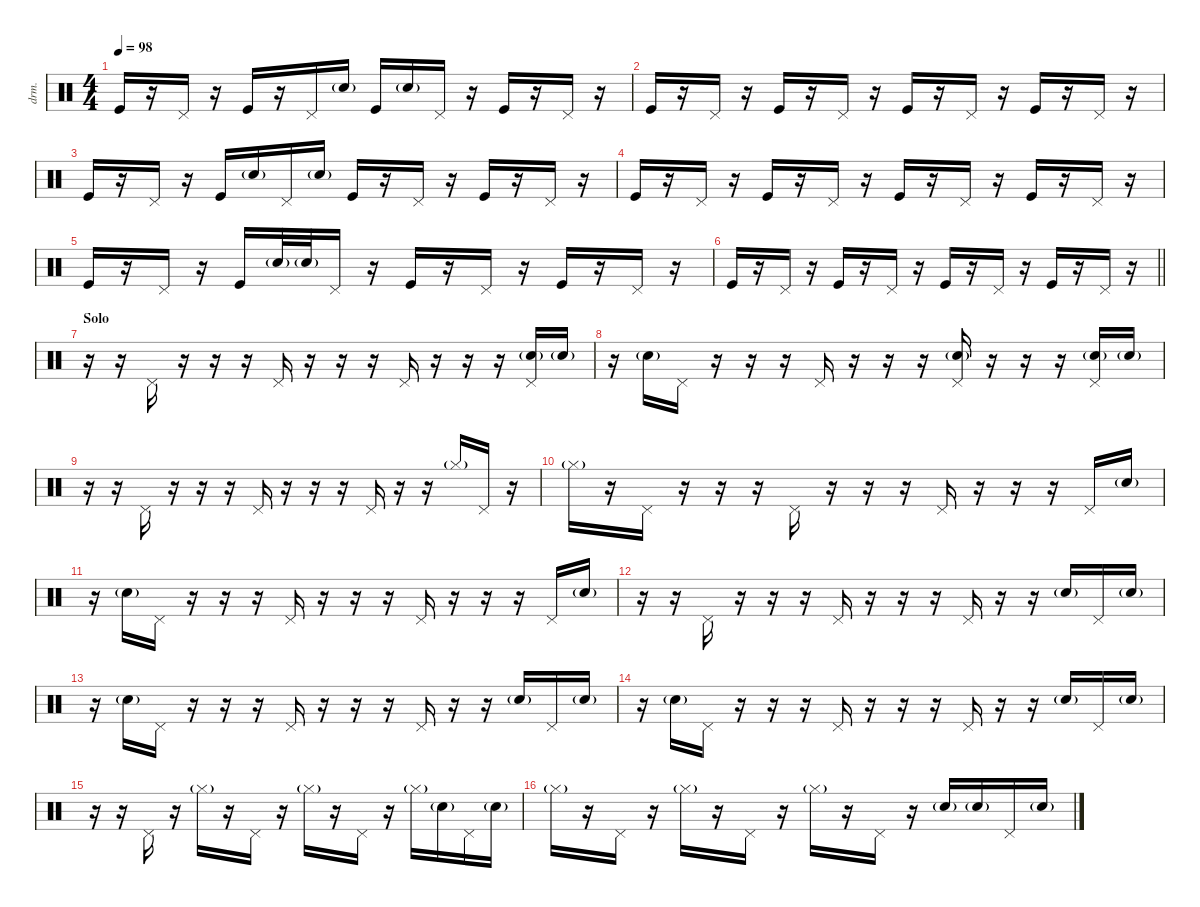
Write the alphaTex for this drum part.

\defaultSystemsLayout 4
\hideDynamics
\bracketExtendMode nobrackets
\otherSystemsTrackNameOrientation horizontal
\track ("Duris Maxwell" "drm.") {instrument percussion}
\staff {score}
\articulation defaults
\ts (4 4)
\tempo 98
\clef neutral
\ks c "Kick (hit)".16{dy f beam Up}
r.16{beam Up} "Pedal Hi-Hat (hit)".16{beam Up} r.16{beam Up} "Kick (hit)".16{beam Up} r.16{beam Up} "Pedal Hi-Hat (hit)".16{beam Up} "Snare (hit) 2"{g}.16{beam Up} "Kick (hit)".16{beam Up} "Snare (hit) 2"{g}.16{beam Up} "Pedal Hi-Hat (hit)".16{beam Up} r.16{beam Up} "Kick (hit)".16{beam Up} r.16{beam Up} "Pedal Hi-Hat (hit)".16{beam Up} r.16{beam Up} |
"Kick (hit)".16{beam Up} r.16{beam Up} "Pedal Hi-Hat (hit)".16{beam Up} r.16{beam Up} "Kick (hit)".16{beam Up} r.16{beam Up} "Pedal Hi-Hat (hit)".16{beam Up} r.16{beam Up} "Kick (hit)".16{beam Up} r.16{beam Up} "Pedal Hi-Hat (hit)".16{beam Up} r.16{beam Up} "Kick (hit)".16{beam Up} r.16{beam Up} "Pedal Hi-Hat (hit)".16{beam Up} r.16{beam Up} |
"Kick (hit)".16{beam Up} r.16{beam Up} "Pedal Hi-Hat (hit)".16{beam Up} r.16{beam Up} "Kick (hit)".16{beam Up} "Snare (hit) 2"{g}.16{beam Up} "Pedal Hi-Hat (hit)".16{beam Up} "Snare (hit) 2"{g}.16{beam Up} "Kick (hit)".16{beam Up} r.16{beam Up} "Pedal Hi-Hat (hit)".16{beam Up} r.16{beam Up} "Kick (hit)".16{beam Up} r.16{beam Up} "Pedal Hi-Hat (hit)".16{beam Up} r.16{beam Up} |
"Kick (hit)".16{beam Up} r.16{beam Up} "Pedal Hi-Hat (hit)".16{beam Up} r.16{beam Up} "Kick (hit)".16{beam Up} r.16{beam Up} "Pedal Hi-Hat (hit)".16{beam Up} r.16{beam Up} "Kick (hit)".16{beam Up} r.16{beam Up} "Pedal Hi-Hat (hit)".16{beam Up} r.16{beam Up} "Kick (hit)".16{beam Up} r.16{beam Up} "Pedal Hi-Hat (hit)".16{beam Up} r.16{beam Up} |
"Kick (hit)".16{beam Up} r.16{beam Up} "Pedal Hi-Hat (hit)".16{beam Up} r.16{beam Up} "Kick (hit)".16{beam Up} "Snare (hit) 2"{g}.32{beam Up} "Snare (hit) 2"{g}.32{beam Up} "Pedal Hi-Hat (hit)".16{beam Up} r.16{beam Up} "Kick (hit)".16{beam Up} r.16{beam Up} "Pedal Hi-Hat (hit)".16{beam Up} r.16{beam Up} "Kick (hit)".16{beam Up} r.16{beam Up} "Pedal Hi-Hat (hit)".16{beam Up} r.16{beam Up} |
\barLineRight lightlight "Kick (hit)".16{beam Up}
r.16{beam Up} "Pedal Hi-Hat (hit)".16{beam Up} r.16{beam Up} "Kick (hit)".16{beam Up} r.16{beam Up} "Pedal Hi-Hat (hit)".16{beam Up} r.16{beam Up} "Kick (hit)".16{beam Up} r.16{beam Up} "Pedal Hi-Hat (hit)".16{beam Up} r.16{beam Up} "Kick (hit)".16{beam Up} r.16{beam Up} "Pedal Hi-Hat (hit)".16{beam Up} r.16{beam Up} |
\section ("" "Solo")
r.16{beam Down} r.16{beam Down} "Pedal Hi-Hat (hit)".16{beam Up} r.16{beam Up} r.16{beam Up} r.16{beam Up} "Pedal Hi-Hat (hit)".16{beam Up} r.16{beam Up} r.16{beam Up} r.16{beam Up} "Pedal Hi-Hat (hit)".16{beam Up} r.16{beam Up} r.16{beam Up} r.16{beam Up} ("Pedal Hi-Hat (hit)" "Snare (hit) 2"{g}).16{beam Up} "Snare (hit) 2"{g}.16{beam Up} |
r.16{beam Down} "Snare (hit) 2"{g}.16{beam Up} "Pedal Hi-Hat (hit)".16{beam Up} r.16{beam Up} r.16{beam Up} r.16{beam Up} "Pedal Hi-Hat (hit)".16{beam Up} r.16{beam Up} r.16{beam Up} r.16{beam Up} ("Pedal Hi-Hat (hit)" "Snare (hit) 2"{g}).16{beam Up} r.16{beam Up} r.16{beam Up} r.16{beam Up} ("Pedal Hi-Hat (hit)" "Snare (hit) 2"{g}).16{beam Up} "Snare (hit) 2"{g}.16{beam Up} |
r.16{beam Down} r.16{beam Down} "Pedal Hi-Hat (hit)".16{beam Up} r.16{beam Up} r.16{beam Up} r.16{beam Up} "Pedal Hi-Hat (hit)".16{beam Up} r.16{beam Up} r.16{beam Up} r.16{beam Up} "Pedal Hi-Hat (hit)".16{beam Up} r.16{beam Up} r.16{beam Up} "Hi-Hat (closed)"{g}.16{beam Down} "Pedal Hi-Hat (hit)".16{beam Down} r.16{beam Down} |
"Hi-Hat (closed)"{g}.16{beam Down} r.16{beam Down} "Pedal Hi-Hat (hit)".16{beam Down} r.16{beam Down} r.16{beam Down} r.16{beam Down} "Pedal Hi-Hat (hit)".16{beam Up} r.16{beam Up} r.16{beam Up} r.16{beam Up} "Pedal Hi-Hat (hit)".16{beam Up} r.16{beam Up} r.16{beam Up} r.16{beam Up} "Pedal Hi-Hat (hit)".16{beam Up} "Snare (hit) 2"{g}.16{beam Up} |
r.16{beam Down} "Snare (hit) 2"{g}.16{beam Up} "Pedal Hi-Hat (hit)".16{beam Up} r.16{beam Up} r.16{beam Up} r.16{beam Up} "Pedal Hi-Hat (hit)".16{beam Up} r.16{beam Up} r.16{beam Up} r.16{beam Up} "Pedal Hi-Hat (hit)".16{beam Up} r.16{beam Up} r.16{beam Up} r.16{beam Up} "Pedal Hi-Hat (hit)".16{beam Up} "Snare (hit) 2"{g}.16{beam Up} |
r.16{beam Down} r.16{beam Down} "Pedal Hi-Hat (hit)".16{beam Up} r.16{beam Up} r.16{beam Up} r.16{beam Up} "Pedal Hi-Hat (hit)".16{beam Up} r.16{beam Up} r.16{beam Up} r.16{beam Up} "Pedal Hi-Hat (hit)".16{beam Up} r.16{beam Up} r.16{beam Up} "Snare (hit) 2"{g}.16{beam Up} "Pedal Hi-Hat (hit)".16{beam Up} "Snare (hit) 2"{g}.16{beam Up} |
r.16{beam Down} "Snare (hit) 2"{g}.16{beam Up} "Pedal Hi-Hat (hit)".16{beam Up} r.16{beam Up} r.16{beam Up} r.16{beam Up} "Pedal Hi-Hat (hit)".16{beam Up} r.16{beam Up} r.16{beam Up} r.16{beam Up} "Pedal Hi-Hat (hit)".16{beam Up} r.16{beam Up} r.16{beam Up} "Snare (hit) 2"{g}.16{beam Up} "Pedal Hi-Hat (hit)".16{beam Up} "Snare (hit) 2"{g}.16{beam Up} |
r.16{beam Down} "Snare (hit) 2"{g}.16{beam Up} "Pedal Hi-Hat (hit)".16{beam Up} r.16{beam Up} r.16{beam Up} r.16{beam Up} "Pedal Hi-Hat (hit)".16{beam Up} r.16{beam Up} r.16{beam Up} r.16{beam Up} "Pedal Hi-Hat (hit)".16{beam Up} r.16{beam Up} r.16{beam Up} "Snare (hit) 2"{g}.16{beam Up} "Pedal Hi-Hat (hit)".16{beam Up} "Snare (hit) 2"{g}.16{beam Up} |
r.16{beam Down} r.16{beam Down} "Pedal Hi-Hat (hit)".16{beam Up} r.16{beam Up} "Hi-Hat (closed)"{g}.16{beam Down} r.16{beam Down} "Pedal Hi-Hat (hit)".16{beam Down} r.16{beam Down} "Hi-Hat (closed)"{g}.16{beam Down} r.16{beam Down} "Pedal Hi-Hat (hit)".16{beam Down} r.16{beam Down} "Hi-Hat (closed)"{g}.16{beam Down} "Snare (hit) 2"{g}.16{beam Down} "Pedal Hi-Hat (hit)".16{beam Down} "Snare (hit) 2"{g}.16{beam Down} |
"Hi-Hat (closed)"{g}.16{beam Down} r.16{beam Down} "Pedal Hi-Hat (hit)".16{beam Down} r.16{beam Down} "Hi-Hat (closed)"{g}.16{beam Down} r.16{beam Down} "Pedal Hi-Hat (hit)".16{beam Down} r.16{beam Down} "Hi-Hat (closed)"{g}.16{beam Down} r.16{beam Down} "Pedal Hi-Hat (hit)".16{beam Down} r.16{beam Down} "Snare (hit) 2"{g}.16{beam Up} "Snare (hit) 2"{g}.16{beam Up} "Pedal Hi-Hat (hit)".16{beam Up} "Snare (hit) 2"{g}.16{beam Up}
